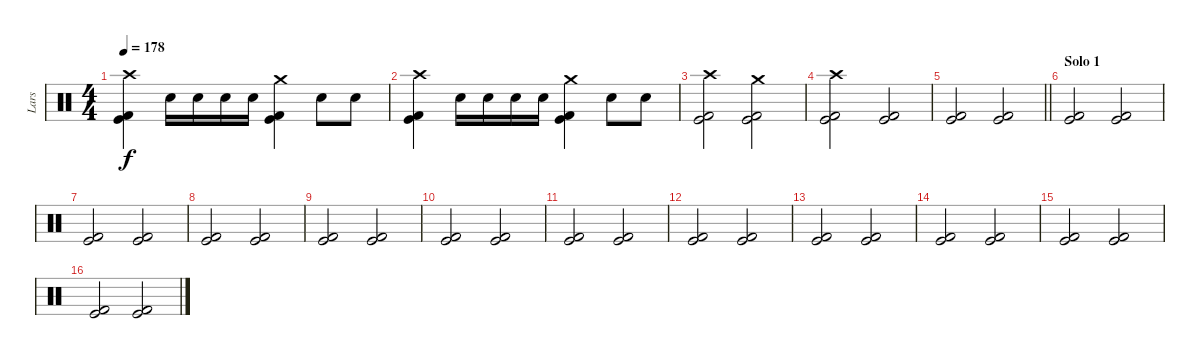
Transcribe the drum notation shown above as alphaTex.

\track ("Lars" "Lars") {instrument percussion}
\staff {score}
\articulation defaults
\ts (4 4)
\tempo 178
\clef neutral
\ks c
("Crash high (hit)" "Kick (hit)" "Kick (hit) 2").4{dy f} "Electric Snare (hit)".16 "Electric Snare (hit)".16 "Electric Snare (hit)".16 "Electric Snare (hit)".16 ("Crash medium (hit)" "Kick (hit)" "Kick (hit) 2").4 "Electric Snare (hit)".8 "Electric Snare (hit)".8 |
("Crash high (hit)" "Kick (hit)" "Kick (hit) 2").4 "Electric Snare (hit)".16 "Electric Snare (hit)".16 "Electric Snare (hit)".16 "Electric Snare (hit)".16 ("Crash medium (hit)" "Kick (hit)" "Kick (hit) 2").4 "Electric Snare (hit)".8 "Electric Snare (hit)".8 |
("Crash high (hit)" "Kick (hit)" "Kick (hit) 2").2 ("Crash medium (hit)" "Kick (hit)" "Kick (hit) 2").2 |
("Crash high (hit)" "Kick (hit)" "Kick (hit) 2").2 ("Kick (hit)" "Kick (hit) 2").2 |
\barLineRight lightlight
("Kick (hit)" "Kick (hit) 2").2 ("Kick (hit)" "Kick (hit) 2").2 |
\section ("" "Solo 1")
("Kick (hit)" "Kick (hit) 2").2 ("Kick (hit)" "Kick (hit) 2").2 |
("Kick (hit)" "Kick (hit) 2").2 ("Kick (hit)" "Kick (hit) 2").2 |
("Kick (hit)" "Kick (hit) 2").2 ("Kick (hit)" "Kick (hit) 2").2 |
("Kick (hit)" "Kick (hit) 2").2 ("Kick (hit)" "Kick (hit) 2").2 |
("Kick (hit)" "Kick (hit) 2").2 ("Kick (hit)" "Kick (hit) 2").2 |
("Kick (hit)" "Kick (hit) 2").2 ("Kick (hit)" "Kick (hit) 2").2 |
("Kick (hit)" "Kick (hit) 2").2 ("Kick (hit)" "Kick (hit) 2").2 |
("Kick (hit)" "Kick (hit) 2").2 ("Kick (hit)" "Kick (hit) 2").2 |
("Kick (hit)" "Kick (hit) 2").2 ("Kick (hit)" "Kick (hit) 2").2 |
("Kick (hit)" "Kick (hit) 2").2 ("Kick (hit)" "Kick (hit) 2").2 |
("Kick (hit)" "Kick (hit) 2").2 ("Kick (hit)" "Kick (hit) 2").2
